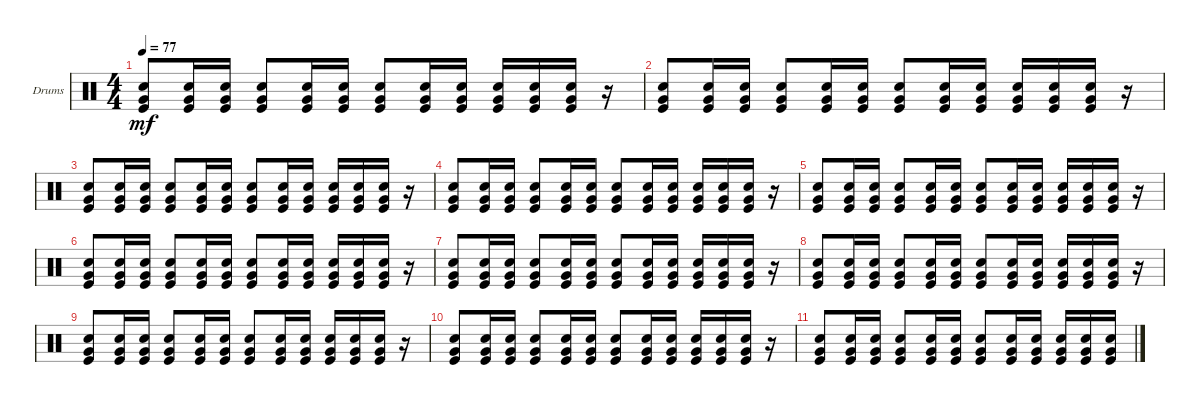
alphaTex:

\bracketExtendMode groupsimilarinstruments
\firstSystemTrackNameOrientation horizontal
\otherSystemsTrackNameOrientation horizontal
\track ("Drums" "Drums") {instrument percussion}
\staff {score}
\articulation defaults
\ts (4 4)
\tempo 77
\clef neutral
\ks c
("Snare (hit) 2" "Very Low Tom (hit)" "Kick (hit)").8{dy mf} ("Snare (hit) 2" "Very Low Tom (hit)" "Kick (hit)").16 ("Snare (hit) 2" "Very Low Tom (hit)" "Kick (hit)").16 ("Snare (hit) 2" "Very Low Tom (hit)" "Kick (hit)").8 ("Snare (hit) 2" "Very Low Tom (hit)" "Kick (hit)").16 ("Snare (hit) 2" "Very Low Tom (hit)" "Kick (hit)").16 ("Snare (hit) 2" "Very Low Tom (hit)" "Kick (hit)").8 ("Snare (hit) 2" "Very Low Tom (hit)" "Kick (hit)").16 ("Snare (hit) 2" "Very Low Tom (hit)" "Kick (hit)").16 ("Snare (hit) 2" "Very Low Tom (hit)" "Kick (hit)").16 ("Snare (hit) 2" "Very Low Tom (hit)" "Kick (hit)").16 ("Snare (hit) 2" "Very Low Tom (hit)" "Kick (hit)").16 r.16 |
("Snare (hit) 2" "Very Low Tom (hit)" "Kick (hit)").8 ("Snare (hit) 2" "Very Low Tom (hit)" "Kick (hit)").16 ("Snare (hit) 2" "Very Low Tom (hit)" "Kick (hit)").16 ("Snare (hit) 2" "Very Low Tom (hit)" "Kick (hit)").8 ("Snare (hit) 2" "Very Low Tom (hit)" "Kick (hit)").16 ("Snare (hit) 2" "Very Low Tom (hit)" "Kick (hit)").16 ("Snare (hit) 2" "Very Low Tom (hit)" "Kick (hit)").8 ("Snare (hit) 2" "Very Low Tom (hit)" "Kick (hit)").16 ("Snare (hit) 2" "Very Low Tom (hit)" "Kick (hit)").16 ("Snare (hit) 2" "Very Low Tom (hit)" "Kick (hit)").16 ("Snare (hit) 2" "Very Low Tom (hit)" "Kick (hit)").16 ("Snare (hit) 2" "Very Low Tom (hit)" "Kick (hit)").16 r.16 |
("Snare (hit) 2" "Very Low Tom (hit)" "Kick (hit)").8 ("Snare (hit) 2" "Very Low Tom (hit)" "Kick (hit)").16 ("Snare (hit) 2" "Very Low Tom (hit)" "Kick (hit)").16 ("Snare (hit) 2" "Very Low Tom (hit)" "Kick (hit)").8 ("Snare (hit) 2" "Very Low Tom (hit)" "Kick (hit)").16 ("Snare (hit) 2" "Very Low Tom (hit)" "Kick (hit)").16 ("Snare (hit) 2" "Very Low Tom (hit)" "Kick (hit)").8 ("Snare (hit) 2" "Very Low Tom (hit)" "Kick (hit)").16 ("Snare (hit) 2" "Very Low Tom (hit)" "Kick (hit)").16 ("Snare (hit) 2" "Very Low Tom (hit)" "Kick (hit)").16 ("Snare (hit) 2" "Very Low Tom (hit)" "Kick (hit)").16 ("Snare (hit) 2" "Very Low Tom (hit)" "Kick (hit)").16 r.16 |
("Snare (hit) 2" "Very Low Tom (hit)" "Kick (hit)").8 ("Snare (hit) 2" "Very Low Tom (hit)" "Kick (hit)").16 ("Snare (hit) 2" "Very Low Tom (hit)" "Kick (hit)").16 ("Snare (hit) 2" "Very Low Tom (hit)" "Kick (hit)").8 ("Snare (hit) 2" "Very Low Tom (hit)" "Kick (hit)").16 ("Snare (hit) 2" "Very Low Tom (hit)" "Kick (hit)").16 ("Snare (hit) 2" "Very Low Tom (hit)" "Kick (hit)").8 ("Snare (hit) 2" "Very Low Tom (hit)" "Kick (hit)").16 ("Snare (hit) 2" "Very Low Tom (hit)" "Kick (hit)").16 ("Snare (hit) 2" "Very Low Tom (hit)" "Kick (hit)").16 ("Snare (hit) 2" "Very Low Tom (hit)" "Kick (hit)").16 ("Snare (hit) 2" "Very Low Tom (hit)" "Kick (hit)").16 r.16 |
("Snare (hit) 2" "Very Low Tom (hit)" "Kick (hit)").8 ("Snare (hit) 2" "Very Low Tom (hit)" "Kick (hit)").16 ("Snare (hit) 2" "Very Low Tom (hit)" "Kick (hit)").16 ("Snare (hit) 2" "Very Low Tom (hit)" "Kick (hit)").8 ("Snare (hit) 2" "Very Low Tom (hit)" "Kick (hit)").16 ("Snare (hit) 2" "Very Low Tom (hit)" "Kick (hit)").16 ("Snare (hit) 2" "Very Low Tom (hit)" "Kick (hit)").8 ("Snare (hit) 2" "Very Low Tom (hit)" "Kick (hit)").16 ("Snare (hit) 2" "Very Low Tom (hit)" "Kick (hit)").16 ("Snare (hit) 2" "Very Low Tom (hit)" "Kick (hit)").16 ("Snare (hit) 2" "Very Low Tom (hit)" "Kick (hit)").16 ("Snare (hit) 2" "Very Low Tom (hit)" "Kick (hit)").16 r.16 |
("Snare (hit) 2" "Very Low Tom (hit)" "Kick (hit)").8 ("Snare (hit) 2" "Very Low Tom (hit)" "Kick (hit)").16 ("Snare (hit) 2" "Very Low Tom (hit)" "Kick (hit)").16 ("Snare (hit) 2" "Very Low Tom (hit)" "Kick (hit)").8 ("Snare (hit) 2" "Very Low Tom (hit)" "Kick (hit)").16 ("Snare (hit) 2" "Very Low Tom (hit)" "Kick (hit)").16 ("Snare (hit) 2" "Very Low Tom (hit)" "Kick (hit)").8 ("Snare (hit) 2" "Very Low Tom (hit)" "Kick (hit)").16 ("Snare (hit) 2" "Very Low Tom (hit)" "Kick (hit)").16 ("Snare (hit) 2" "Very Low Tom (hit)" "Kick (hit)").16 ("Snare (hit) 2" "Very Low Tom (hit)" "Kick (hit)").16 ("Snare (hit) 2" "Very Low Tom (hit)" "Kick (hit)").16 r.16 |
("Snare (hit) 2" "Very Low Tom (hit)" "Kick (hit)").8 ("Snare (hit) 2" "Very Low Tom (hit)" "Kick (hit)").16 ("Snare (hit) 2" "Very Low Tom (hit)" "Kick (hit)").16 ("Snare (hit) 2" "Very Low Tom (hit)" "Kick (hit)").8 ("Snare (hit) 2" "Very Low Tom (hit)" "Kick (hit)").16 ("Snare (hit) 2" "Very Low Tom (hit)" "Kick (hit)").16 ("Snare (hit) 2" "Very Low Tom (hit)" "Kick (hit)").8 ("Snare (hit) 2" "Very Low Tom (hit)" "Kick (hit)").16 ("Snare (hit) 2" "Very Low Tom (hit)" "Kick (hit)").16 ("Snare (hit) 2" "Very Low Tom (hit)" "Kick (hit)").16 ("Snare (hit) 2" "Very Low Tom (hit)" "Kick (hit)").16 ("Snare (hit) 2" "Very Low Tom (hit)" "Kick (hit)").16 r.16 |
("Snare (hit) 2" "Very Low Tom (hit)" "Kick (hit)").8 ("Snare (hit) 2" "Very Low Tom (hit)" "Kick (hit)").16 ("Snare (hit) 2" "Very Low Tom (hit)" "Kick (hit)").16 ("Snare (hit) 2" "Very Low Tom (hit)" "Kick (hit)").8 ("Snare (hit) 2" "Very Low Tom (hit)" "Kick (hit)").16 ("Snare (hit) 2" "Very Low Tom (hit)" "Kick (hit)").16 ("Snare (hit) 2" "Very Low Tom (hit)" "Kick (hit)").8 ("Snare (hit) 2" "Very Low Tom (hit)" "Kick (hit)").16 ("Snare (hit) 2" "Very Low Tom (hit)" "Kick (hit)").16 ("Snare (hit) 2" "Very Low Tom (hit)" "Kick (hit)").16 ("Snare (hit) 2" "Very Low Tom (hit)" "Kick (hit)").16 ("Snare (hit) 2" "Very Low Tom (hit)" "Kick (hit)").16 r.16 |
("Snare (hit) 2" "Very Low Tom (hit)" "Kick (hit)").8 ("Snare (hit) 2" "Very Low Tom (hit)" "Kick (hit)").16 ("Snare (hit) 2" "Very Low Tom (hit)" "Kick (hit)").16 ("Snare (hit) 2" "Very Low Tom (hit)" "Kick (hit)").8 ("Snare (hit) 2" "Very Low Tom (hit)" "Kick (hit)").16 ("Snare (hit) 2" "Very Low Tom (hit)" "Kick (hit)").16 ("Snare (hit) 2" "Very Low Tom (hit)" "Kick (hit)").8 ("Snare (hit) 2" "Very Low Tom (hit)" "Kick (hit)").16 ("Snare (hit) 2" "Very Low Tom (hit)" "Kick (hit)").16 ("Snare (hit) 2" "Very Low Tom (hit)" "Kick (hit)").16 ("Snare (hit) 2" "Very Low Tom (hit)" "Kick (hit)").16 ("Snare (hit) 2" "Very Low Tom (hit)" "Kick (hit)").16 r.16 |
("Snare (hit) 2" "Very Low Tom (hit)" "Kick (hit)").8 ("Snare (hit) 2" "Very Low Tom (hit)" "Kick (hit)").16 ("Snare (hit) 2" "Very Low Tom (hit)" "Kick (hit)").16 ("Snare (hit) 2" "Very Low Tom (hit)" "Kick (hit)").8 ("Snare (hit) 2" "Very Low Tom (hit)" "Kick (hit)").16 ("Snare (hit) 2" "Very Low Tom (hit)" "Kick (hit)").16 ("Snare (hit) 2" "Very Low Tom (hit)" "Kick (hit)").8 ("Snare (hit) 2" "Very Low Tom (hit)" "Kick (hit)").16 ("Snare (hit) 2" "Very Low Tom (hit)" "Kick (hit)").16 ("Snare (hit) 2" "Very Low Tom (hit)" "Kick (hit)").16 ("Snare (hit) 2" "Very Low Tom (hit)" "Kick (hit)").16 ("Snare (hit) 2" "Very Low Tom (hit)" "Kick (hit)").16 r.16 |
("Snare (hit) 2" "Very Low Tom (hit)" "Kick (hit)").8 ("Snare (hit) 2" "Very Low Tom (hit)" "Kick (hit)").16 ("Snare (hit) 2" "Very Low Tom (hit)" "Kick (hit)").16 ("Snare (hit) 2" "Very Low Tom (hit)" "Kick (hit)").8 ("Snare (hit) 2" "Very Low Tom (hit)" "Kick (hit)").16 ("Snare (hit) 2" "Very Low Tom (hit)" "Kick (hit)").16 ("Snare (hit) 2" "Very Low Tom (hit)" "Kick (hit)").8 ("Snare (hit) 2" "Very Low Tom (hit)" "Kick (hit)").16 ("Snare (hit) 2" "Very Low Tom (hit)" "Kick (hit)").16 ("Snare (hit) 2" "Very Low Tom (hit)" "Kick (hit)").16 ("Snare (hit) 2" "Very Low Tom (hit)" "Kick (hit)").16 ("Snare (hit) 2" "Very Low Tom (hit)" "Kick (hit)").16
